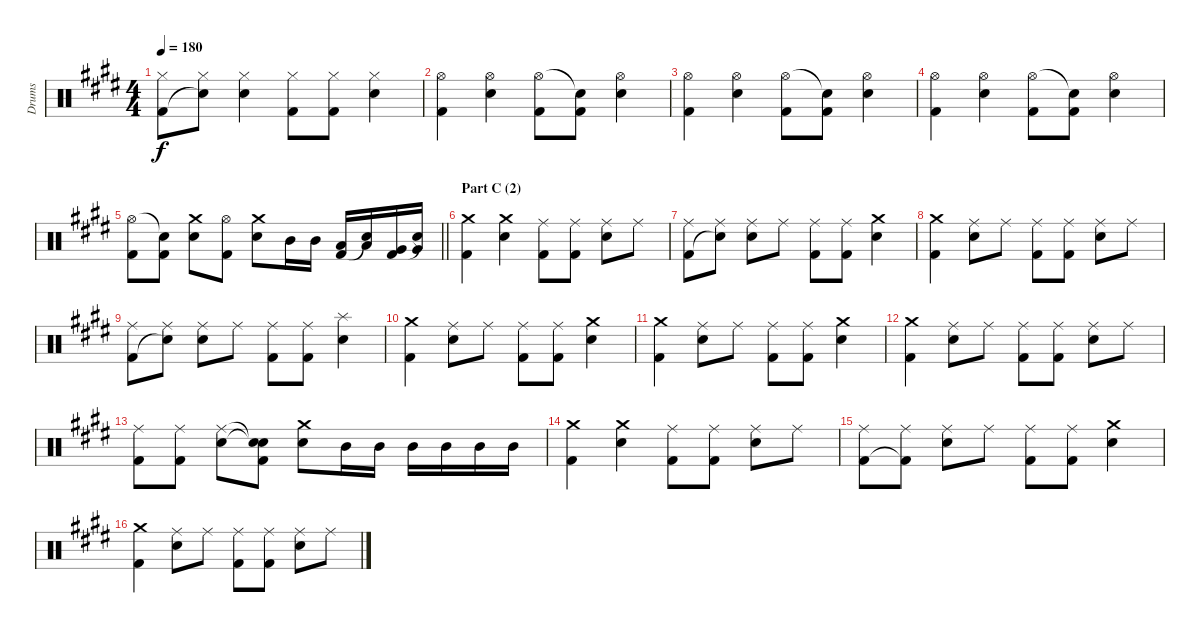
\track ("Drums" "Drums") {instrument percussion}
\staff {score}
\articulation defaults
\ts (4 4)
\tempo 180
\clef neutral
\ks e
("Hi-Hat (closed)" "Kick (hit) 2").8{dy f} ("Hi-Hat (closed)" "Snare (hit)"{t}).8 ("Hi-Hat (closed)" "Electric Snare (hit)").4 ("Hi-Hat (closed)" "Kick (hit) 2").8 ("Hi-Hat (closed)" "Kick (hit) 2").8 ("Hi-Hat (closed)" "Electric Snare (hit)").4 |
("Hi-Hat (open)" "Kick (hit) 2").4 ("Hi-Hat (open)" "Electric Snare (hit)").4 ("Hi-Hat (open)" "Kick (hit) 2").8 ("Snare (hit)"{t} "Kick (hit) 2").8 ("Hi-Hat (open)" "Electric Snare (hit)").4 |
("Hi-Hat (open)" "Kick (hit) 2").4 ("Hi-Hat (open)" "Electric Snare (hit)").4 ("Hi-Hat (open)" "Kick (hit) 2").8 ("Snare (hit)"{t} "Kick (hit) 2").8 ("Hi-Hat (open)" "Electric Snare (hit)").4 |
("Hi-Hat (open)" "Kick (hit) 2").4 ("Hi-Hat (open)" "Electric Snare (hit)").4 ("Hi-Hat (open)" "Kick (hit) 2").8 ("Snare (hit)"{t} "Kick (hit) 2").8 ("Hi-Hat (open)" "Electric Snare (hit)").4 |
\barLineRight lightlight
("Hi-Hat (open)" "Kick (hit) 2").8 ("Snare (hit)"{t} "Kick (hit) 2").8 ("Crash medium (hit)" "Electric Snare (hit)").8 ("Hi-Hat (open)" "Kick (hit) 2").8 ("Crash medium (hit)" "Electric Snare (hit)").8 "Mid Tom (hit)".16 "Mid Tom (hit)".16 ("Low Tom (hit)" "Kick (hit) 2").16 ("Low Tom (hit)" "Snare (hit)"{t}).16 ("Very Low Tom (hit)" "Kick (hit) 2").16 ("Very Low Tom (hit)" "Snare (hit)"{t}).16 |
\section ("" "Part C (2)")
("Crash medium (hit)" "Kick (hit) 2").4 ("Crash medium (hit)" "Electric Snare (hit)").4 ("Ride (middle)" "Kick (hit) 2").8 ("Ride (middle)" "Kick (hit) 2").8 ("Ride (middle)" "Electric Snare (hit)").8 "Ride (middle)".8 |
("Ride (middle)" "Kick (hit) 2").8 ("Ride (middle)" "Snare (hit)"{t}).8 ("Ride (middle)" "Electric Snare (hit)").8 "Ride (middle)".8 ("Ride (middle)" "Kick (hit) 2").8 ("Ride (middle)" "Kick (hit) 2").8 ("Crash medium (hit)" "Electric Snare (hit)").4 |
("Crash medium (hit)" "Kick (hit) 2").4 ("Ride (middle)" "Electric Snare (hit)").8 "Ride (middle)".8 ("Ride (middle)" "Kick (hit) 2").8 ("Ride (middle)" "Kick (hit) 2").8 ("Ride (middle)" "Electric Snare (hit)").8 "Ride (middle)".8 |
("Ride (middle)" "Kick (hit) 2").8 ("Ride (middle)" "Snare (hit)"{t}).8 ("Ride (middle)" "Electric Snare (hit)").8 "Ride (middle)".8 ("Ride (middle)" "Kick (hit) 2").8 ("Ride (middle)" "Kick (hit) 2").8 ("Splash (hit)" "Electric Snare (hit)").4 |
("Crash medium (hit)" "Kick (hit) 2").4 ("Ride (middle)" "Electric Snare (hit)").8 "Ride (middle)".8 ("Ride (middle)" "Kick (hit) 2").8 ("Ride (middle)" "Kick (hit) 2").8 ("Crash medium (hit)" "Electric Snare (hit)").4 |
("Crash medium (hit)" "Kick (hit) 2").4 ("Ride (middle)" "Electric Snare (hit)").8 "Ride (middle)".8 ("Ride (middle)" "Kick (hit) 2").8 ("Ride (middle)" "Kick (hit) 2").8 ("Crash medium (hit)" "Electric Snare (hit)").4 |
("Crash medium (hit)" "Kick (hit) 2").4 ("Ride (middle)" "Electric Snare (hit)").8 "Ride (middle)".8 ("Ride (middle)" "Kick (hit) 2").8 ("Ride (middle)" "Kick (hit) 2").8 ("Ride (middle)" "Electric Snare (hit)").8 "Ride (middle)".8 |
("Ride (middle)" "Kick (hit) 2").8 ("Ride (middle)" "Kick (hit) 2").8 ("Ride (middle)" "Electric Snare (hit)").8 ("Snare (hit)"{t} "Snare (hit)"{t} "Kick (hit) 2").8 ("Crash medium (hit)" "Electric Snare (hit)").8 "Mid Tom (hit)".16 "Mid Tom (hit)".16 "Mid Tom (hit)".16 "Mid Tom (hit)".16 "Mid Tom (hit)".16 "Mid Tom (hit)".16 |
("Crash medium (hit)" "Kick (hit) 2").4 ("Crash medium (hit)" "Electric Snare (hit)").4 ("Ride (middle)" "Kick (hit) 2").8 ("Ride (middle)" "Kick (hit) 2").8 ("Ride (middle)" "Electric Snare (hit)").8 "Ride (middle)".8 |
("Ride (middle)" "Kick (hit) 2").8 ("Ride (middle)" "Kick (hit) 2"{t}).8 ("Ride (middle)" "Electric Snare (hit)").8 "Ride (middle)".8 ("Ride (middle)" "Kick (hit) 2").8 ("Ride (middle)" "Kick (hit) 2").8 ("Crash medium (hit)" "Electric Snare (hit)").4 |
("Crash medium (hit)" "Kick (hit) 2").4 ("Ride (middle)" "Electric Snare (hit)").8 "Ride (middle)".8 ("Ride (middle)" "Kick (hit) 2").8 ("Ride (middle)" "Kick (hit) 2").8 ("Ride (middle)" "Electric Snare (hit)").8 "Ride (middle)".8
